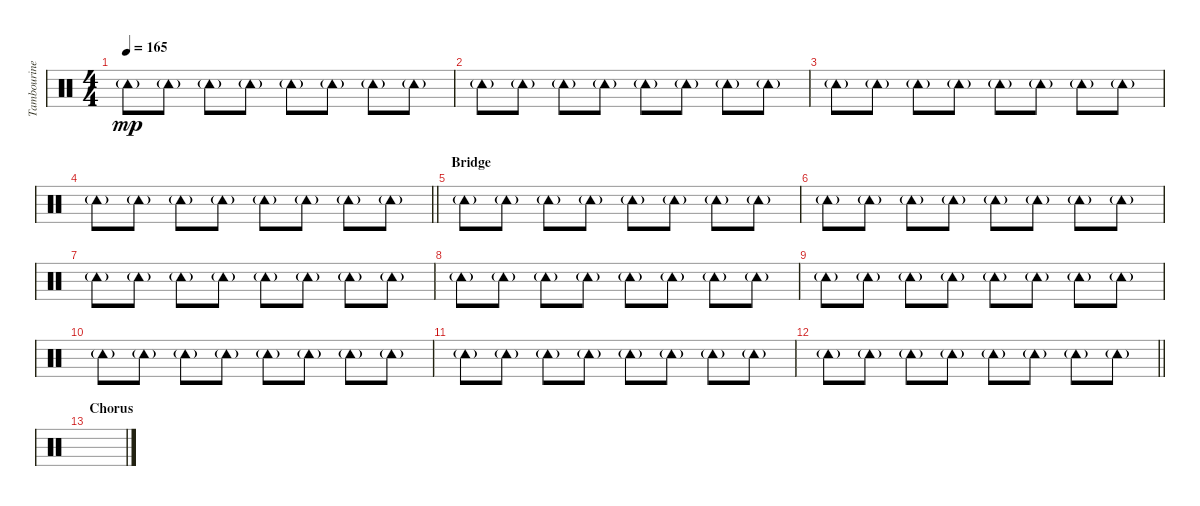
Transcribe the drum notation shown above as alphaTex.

\track ("Tambourine" "Tambourine") {instrument percussion}
\staff {score}
\articulation defaults
\ts (4 4)
\tempo 165
\clef neutral
\ks c "Tambourine (hit)"{g}.8{dy mp} "Tambourine (hit)"{g}.8 "Tambourine (hit)"{g}.8 "Tambourine (hit)"{g}.8 "Tambourine (hit)"{g}.8 "Tambourine (hit)"{g}.8 "Tambourine (hit)"{g}.8 "Tambourine (hit)"{g}.8
|
"Tambourine (hit)"{g}.8 "Tambourine (hit)"{g}.8 "Tambourine (hit)"{g}.8 "Tambourine (hit)"{g}.8 "Tambourine (hit)"{g}.8 "Tambourine (hit)"{g}.8 "Tambourine (hit)"{g}.8 "Tambourine (hit)"{g}.8 |
"Tambourine (hit)"{g}.8 "Tambourine (hit)"{g}.8 "Tambourine (hit)"{g}.8 "Tambourine (hit)"{g}.8 "Tambourine (hit)"{g}.8 "Tambourine (hit)"{g}.8 "Tambourine (hit)"{g}.8 "Tambourine (hit)"{g}.8 |
\barLineRight lightlight "Tambourine (hit)"{g}.8 "Tambourine (hit)"{g}.8 "Tambourine (hit)"{g}.8 "Tambourine (hit)"{g}.8 "Tambourine (hit)"{g}.8 "Tambourine (hit)"{g}.8 "Tambourine (hit)"{g}.8 "Tambourine (hit)"{g}.8
|
\section ("" "Bridge")
"Tambourine (hit)"{g}.8 "Tambourine (hit)"{g}.8 "Tambourine (hit)"{g}.8 "Tambourine (hit)"{g}.8 "Tambourine (hit)"{g}.8 "Tambourine (hit)"{g}.8 "Tambourine (hit)"{g}.8 "Tambourine (hit)"{g}.8 |
"Tambourine (hit)"{g}.8 "Tambourine (hit)"{g}.8 "Tambourine (hit)"{g}.8 "Tambourine (hit)"{g}.8 "Tambourine (hit)"{g}.8 "Tambourine (hit)"{g}.8 "Tambourine (hit)"{g}.8 "Tambourine (hit)"{g}.8 |
"Tambourine (hit)"{g}.8 "Tambourine (hit)"{g}.8 "Tambourine (hit)"{g}.8 "Tambourine (hit)"{g}.8 "Tambourine (hit)"{g}.8 "Tambourine (hit)"{g}.8 "Tambourine (hit)"{g}.8 "Tambourine (hit)"{g}.8 |
"Tambourine (hit)"{g}.8 "Tambourine (hit)"{g}.8 "Tambourine (hit)"{g}.8 "Tambourine (hit)"{g}.8 "Tambourine (hit)"{g}.8 "Tambourine (hit)"{g}.8 "Tambourine (hit)"{g}.8 "Tambourine (hit)"{g}.8 |
"Tambourine (hit)"{g}.8 "Tambourine (hit)"{g}.8 "Tambourine (hit)"{g}.8 "Tambourine (hit)"{g}.8 "Tambourine (hit)"{g}.8 "Tambourine (hit)"{g}.8 "Tambourine (hit)"{g}.8 "Tambourine (hit)"{g}.8 |
"Tambourine (hit)"{g}.8 "Tambourine (hit)"{g}.8 "Tambourine (hit)"{g}.8 "Tambourine (hit)"{g}.8 "Tambourine (hit)"{g}.8 "Tambourine (hit)"{g}.8 "Tambourine (hit)"{g}.8 "Tambourine (hit)"{g}.8 |
"Tambourine (hit)"{g}.8 "Tambourine (hit)"{g}.8 "Tambourine (hit)"{g}.8 "Tambourine (hit)"{g}.8 "Tambourine (hit)"{g}.8 "Tambourine (hit)"{g}.8 "Tambourine (hit)"{g}.8 "Tambourine (hit)"{g}.8 |
\barLineRight lightlight "Tambourine (hit)"{g}.8 "Tambourine (hit)"{g}.8 "Tambourine (hit)"{g}.8 "Tambourine (hit)"{g}.8 "Tambourine (hit)"{g}.8 "Tambourine (hit)"{g}.8 "Tambourine (hit)"{g}.8 "Tambourine (hit)"{g}.8
|
\section ("" "Chorus")
